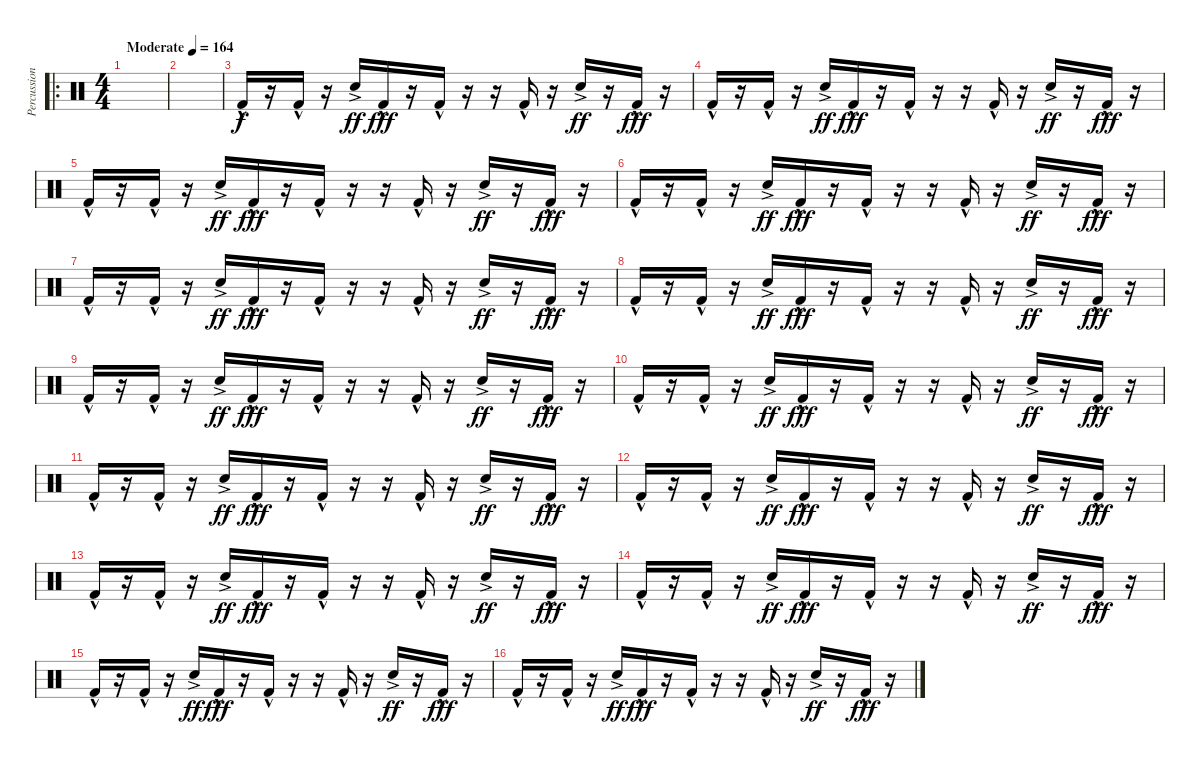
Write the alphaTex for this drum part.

\track ("Percussion" "Percussion") {instrument percussion}
\staff {score}
\articulation defaults
\ro
\ts (4 4)
\tempo (164 "Moderate")
\clef neutral
\ks c
|
|
"Kick (hit) 2"{hac}.16 r.16 "Kick (hit) 2"{hac}.16 r.16 "Snare (hit) 2"{ac}.16{dy ff} "Kick (hit) 2"{hac}.16{dy fff} r.16 "Kick (hit) 2"{hac}.16 r.16 r.16 "Kick (hit) 2"{hac}.16 r.16 "Snare (hit) 2"{ac}.16{dy ff} r.16 "Kick (hit) 2"{hac}.16{dy fff} r.16 |
"Kick (hit) 2"{hac}.16 r.16 "Kick (hit) 2"{hac}.16 r.16 "Snare (hit) 2"{ac}.16{dy ff} "Kick (hit) 2"{hac}.16{dy fff} r.16 "Kick (hit) 2"{hac}.16 r.16 r.16 "Kick (hit) 2"{hac}.16 r.16 "Snare (hit) 2"{ac}.16{dy ff} r.16 "Kick (hit) 2"{hac}.16{dy fff} r.16 |
"Kick (hit) 2"{hac}.16 r.16 "Kick (hit) 2"{hac}.16 r.16 "Snare (hit) 2"{ac}.16{dy ff} "Kick (hit) 2"{hac}.16{dy fff} r.16 "Kick (hit) 2"{hac}.16 r.16 r.16 "Kick (hit) 2"{hac}.16 r.16 "Snare (hit) 2"{ac}.16{dy ff} r.16 "Kick (hit) 2"{hac}.16{dy fff} r.16 |
"Kick (hit) 2"{hac}.16 r.16 "Kick (hit) 2"{hac}.16 r.16 "Snare (hit) 2"{ac}.16{dy ff} "Kick (hit) 2"{hac}.16{dy fff} r.16 "Kick (hit) 2"{hac}.16 r.16 r.16 "Kick (hit) 2"{hac}.16 r.16 "Snare (hit) 2"{ac}.16{dy ff} r.16 "Kick (hit) 2"{hac}.16{dy fff} r.16 |
"Kick (hit) 2"{hac}.16 r.16 "Kick (hit) 2"{hac}.16 r.16 "Snare (hit) 2"{ac}.16{dy ff} "Kick (hit) 2"{hac}.16{dy fff} r.16 "Kick (hit) 2"{hac}.16 r.16 r.16 "Kick (hit) 2"{hac}.16 r.16 "Snare (hit) 2"{ac}.16{dy ff} r.16 "Kick (hit) 2"{hac}.16{dy fff} r.16 |
"Kick (hit) 2"{hac}.16 r.16 "Kick (hit) 2"{hac}.16 r.16 "Snare (hit) 2"{ac}.16{dy ff} "Kick (hit) 2"{hac}.16{dy fff} r.16 "Kick (hit) 2"{hac}.16 r.16 r.16 "Kick (hit) 2"{hac}.16 r.16 "Snare (hit) 2"{ac}.16{dy ff} r.16 "Kick (hit) 2"{hac}.16{dy fff} r.16 |
"Kick (hit) 2"{hac}.16 r.16 "Kick (hit) 2"{hac}.16 r.16 "Snare (hit) 2"{ac}.16{dy ff} "Kick (hit) 2"{hac}.16{dy fff} r.16 "Kick (hit) 2"{hac}.16 r.16 r.16 "Kick (hit) 2"{hac}.16 r.16 "Snare (hit) 2"{ac}.16{dy ff} r.16 "Kick (hit) 2"{hac}.16{dy fff} r.16 |
"Kick (hit) 2"{hac}.16 r.16 "Kick (hit) 2"{hac}.16 r.16 "Snare (hit) 2"{ac}.16{dy ff} "Kick (hit) 2"{hac}.16{dy fff} r.16 "Kick (hit) 2"{hac}.16 r.16 r.16 "Kick (hit) 2"{hac}.16 r.16 "Snare (hit) 2"{ac}.16{dy ff} r.16 "Kick (hit) 2"{hac}.16{dy fff} r.16 |
"Kick (hit) 2"{hac}.16 r.16 "Kick (hit) 2"{hac}.16 r.16 "Snare (hit) 2"{ac}.16{dy ff} "Kick (hit) 2"{hac}.16{dy fff} r.16 "Kick (hit) 2"{hac}.16 r.16 r.16 "Kick (hit) 2"{hac}.16 r.16 "Snare (hit) 2"{ac}.16{dy ff} r.16 "Kick (hit) 2"{hac}.16{dy fff} r.16 |
"Kick (hit) 2"{hac}.16 r.16 "Kick (hit) 2"{hac}.16 r.16 "Snare (hit) 2"{ac}.16{dy ff} "Kick (hit) 2"{hac}.16{dy fff} r.16 "Kick (hit) 2"{hac}.16 r.16 r.16 "Kick (hit) 2"{hac}.16 r.16 "Snare (hit) 2"{ac}.16{dy ff} r.16 "Kick (hit) 2"{hac}.16{dy fff} r.16 |
"Kick (hit) 2"{hac}.16 r.16 "Kick (hit) 2"{hac}.16 r.16 "Snare (hit) 2"{ac}.16{dy ff} "Kick (hit) 2"{hac}.16{dy fff} r.16 "Kick (hit) 2"{hac}.16 r.16 r.16 "Kick (hit) 2"{hac}.16 r.16 "Snare (hit) 2"{ac}.16{dy ff} r.16 "Kick (hit) 2"{hac}.16{dy fff} r.16 |
"Kick (hit) 2"{hac}.16 r.16 "Kick (hit) 2"{hac}.16 r.16 "Snare (hit) 2"{ac}.16{dy ff} "Kick (hit) 2"{hac}.16{dy fff} r.16 "Kick (hit) 2"{hac}.16 r.16 r.16 "Kick (hit) 2"{hac}.16 r.16 "Snare (hit) 2"{ac}.16{dy ff} r.16 "Kick (hit) 2"{hac}.16{dy fff} r.16 |
"Kick (hit) 2"{hac}.16 r.16 "Kick (hit) 2"{hac}.16 r.16 "Snare (hit) 2"{ac}.16{dy ff} "Kick (hit) 2"{hac}.16{dy fff} r.16 "Kick (hit) 2"{hac}.16 r.16 r.16 "Kick (hit) 2"{hac}.16 r.16 "Snare (hit) 2"{ac}.16{dy ff} r.16 "Kick (hit) 2"{hac}.16{dy fff} r.16 |
"Kick (hit) 2"{hac}.16 r.16 "Kick (hit) 2"{hac}.16 r.16 "Snare (hit) 2"{ac}.16{dy ff} "Kick (hit) 2"{hac}.16{dy fff} r.16 "Kick (hit) 2"{hac}.16 r.16 r.16 "Kick (hit) 2"{hac}.16 r.16 "Snare (hit) 2"{ac}.16{dy ff} r.16 "Kick (hit) 2"{hac}.16{dy fff} r.16
